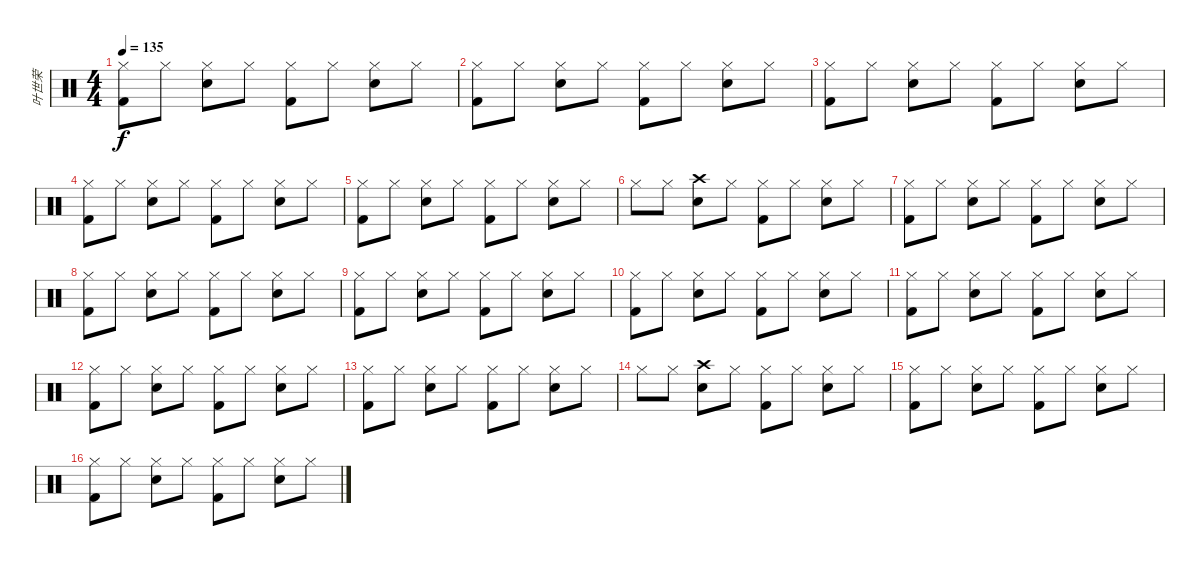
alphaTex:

\track ("叶世荣" "叶世荣") {instrument percussion}
\staff {score}
\articulation defaults
\ts (4 4)
\tempo 135
\clef neutral
\ks c
("Hi-Hat (closed)" "Kick (hit) 2").8{dy f} "Hi-Hat (closed)".8 ("Hi-Hat (closed)" "Electric Snare (hit)").8 "Hi-Hat (closed)".8 ("Hi-Hat (closed)" "Kick (hit) 2").8 "Hi-Hat (closed)".8 ("Hi-Hat (closed)" "Electric Snare (hit)").8 "Hi-Hat (closed)".8 |
("Hi-Hat (closed)" "Kick (hit) 2").8 "Hi-Hat (closed)".8 ("Hi-Hat (closed)" "Electric Snare (hit)").8 "Hi-Hat (closed)".8 ("Hi-Hat (closed)" "Kick (hit) 2").8 "Hi-Hat (closed)".8 ("Hi-Hat (closed)" "Electric Snare (hit)").8 "Hi-Hat (closed)".8 |
("Hi-Hat (closed)" "Kick (hit) 2").8 "Hi-Hat (closed)".8 ("Hi-Hat (closed)" "Electric Snare (hit)").8 "Hi-Hat (closed)".8 ("Hi-Hat (closed)" "Kick (hit) 2").8 "Hi-Hat (closed)".8 ("Hi-Hat (closed)" "Electric Snare (hit)").8 "Hi-Hat (closed)".8 |
("Hi-Hat (closed)" "Kick (hit) 2").8 "Hi-Hat (closed)".8 ("Hi-Hat (closed)" "Electric Snare (hit)").8 "Hi-Hat (closed)".8 ("Hi-Hat (closed)" "Kick (hit) 2").8 "Hi-Hat (closed)".8 ("Hi-Hat (closed)" "Electric Snare (hit)").8 "Hi-Hat (closed)".8 |
("Hi-Hat (closed)" "Kick (hit) 2").8 "Hi-Hat (closed)".8 ("Hi-Hat (closed)" "Electric Snare (hit)").8 "Hi-Hat (closed)".8 ("Hi-Hat (closed)" "Kick (hit) 2").8 "Hi-Hat (closed)".8 ("Hi-Hat (closed)" "Electric Snare (hit)").8 "Hi-Hat (closed)".8 |
"Hi-Hat (closed)".8 "Hi-Hat (closed)".8 ("Crash high (hit)" "Electric Snare (hit)").8 "Hi-Hat (closed)".8 ("Hi-Hat (closed)" "Kick (hit) 2").8 "Hi-Hat (closed)".8 ("Hi-Hat (closed)" "Electric Snare (hit)").8 "Hi-Hat (closed)".8 |
("Hi-Hat (closed)" "Kick (hit) 2").8 "Hi-Hat (closed)".8 ("Hi-Hat (closed)" "Electric Snare (hit)").8 "Hi-Hat (closed)".8 ("Hi-Hat (closed)" "Kick (hit) 2").8 "Hi-Hat (closed)".8 ("Hi-Hat (closed)" "Electric Snare (hit)").8 "Hi-Hat (closed)".8 |
("Hi-Hat (closed)" "Kick (hit) 2").8 "Hi-Hat (closed)".8 ("Hi-Hat (closed)" "Electric Snare (hit)").8 "Hi-Hat (closed)".8 ("Hi-Hat (closed)" "Kick (hit) 2").8 "Hi-Hat (closed)".8 ("Hi-Hat (closed)" "Electric Snare (hit)").8 "Hi-Hat (closed)".8 |
("Hi-Hat (closed)" "Kick (hit) 2").8 "Hi-Hat (closed)".8 ("Hi-Hat (closed)" "Electric Snare (hit)").8 "Hi-Hat (closed)".8 ("Hi-Hat (closed)" "Kick (hit) 2").8 "Hi-Hat (closed)".8 ("Hi-Hat (closed)" "Electric Snare (hit)").8 "Hi-Hat (closed)".8 |
("Hi-Hat (closed)" "Kick (hit) 2").8 "Hi-Hat (closed)".8 ("Hi-Hat (closed)" "Electric Snare (hit)").8 "Hi-Hat (closed)".8 ("Hi-Hat (closed)" "Kick (hit) 2").8 "Hi-Hat (closed)".8 ("Hi-Hat (closed)" "Electric Snare (hit)").8 "Hi-Hat (closed)".8 |
("Hi-Hat (closed)" "Kick (hit) 2").8 "Hi-Hat (closed)".8 ("Hi-Hat (closed)" "Electric Snare (hit)").8 "Hi-Hat (closed)".8 ("Hi-Hat (closed)" "Kick (hit) 2").8 "Hi-Hat (closed)".8 ("Hi-Hat (closed)" "Electric Snare (hit)").8 "Hi-Hat (closed)".8 |
("Hi-Hat (closed)" "Kick (hit) 2").8 "Hi-Hat (closed)".8 ("Hi-Hat (closed)" "Electric Snare (hit)").8 "Hi-Hat (closed)".8 ("Hi-Hat (closed)" "Kick (hit) 2").8 "Hi-Hat (closed)".8 ("Hi-Hat (closed)" "Electric Snare (hit)").8 "Hi-Hat (closed)".8 |
("Hi-Hat (closed)" "Kick (hit) 2").8 "Hi-Hat (closed)".8 ("Hi-Hat (closed)" "Electric Snare (hit)").8 "Hi-Hat (closed)".8 ("Hi-Hat (closed)" "Kick (hit) 2").8 "Hi-Hat (closed)".8 ("Hi-Hat (closed)" "Electric Snare (hit)").8 "Hi-Hat (closed)".8 |
"Hi-Hat (closed)".8 "Hi-Hat (closed)".8 ("Crash high (hit)" "Electric Snare (hit)").8 "Hi-Hat (closed)".8 ("Hi-Hat (closed)" "Kick (hit) 2").8 "Hi-Hat (closed)".8 ("Hi-Hat (closed)" "Electric Snare (hit)").8 "Hi-Hat (closed)".8 |
("Hi-Hat (closed)" "Kick (hit) 2").8 "Hi-Hat (closed)".8 ("Hi-Hat (closed)" "Electric Snare (hit)").8 "Hi-Hat (closed)".8 ("Hi-Hat (closed)" "Kick (hit) 2").8 "Hi-Hat (closed)".8 ("Hi-Hat (closed)" "Electric Snare (hit)").8 "Hi-Hat (closed)".8 |
("Hi-Hat (closed)" "Kick (hit) 2").8 "Hi-Hat (closed)".8 ("Hi-Hat (closed)" "Electric Snare (hit)").8 "Hi-Hat (closed)".8 ("Hi-Hat (closed)" "Kick (hit) 2").8 "Hi-Hat (closed)".8 ("Hi-Hat (closed)" "Electric Snare (hit)").8 "Hi-Hat (closed)".8
